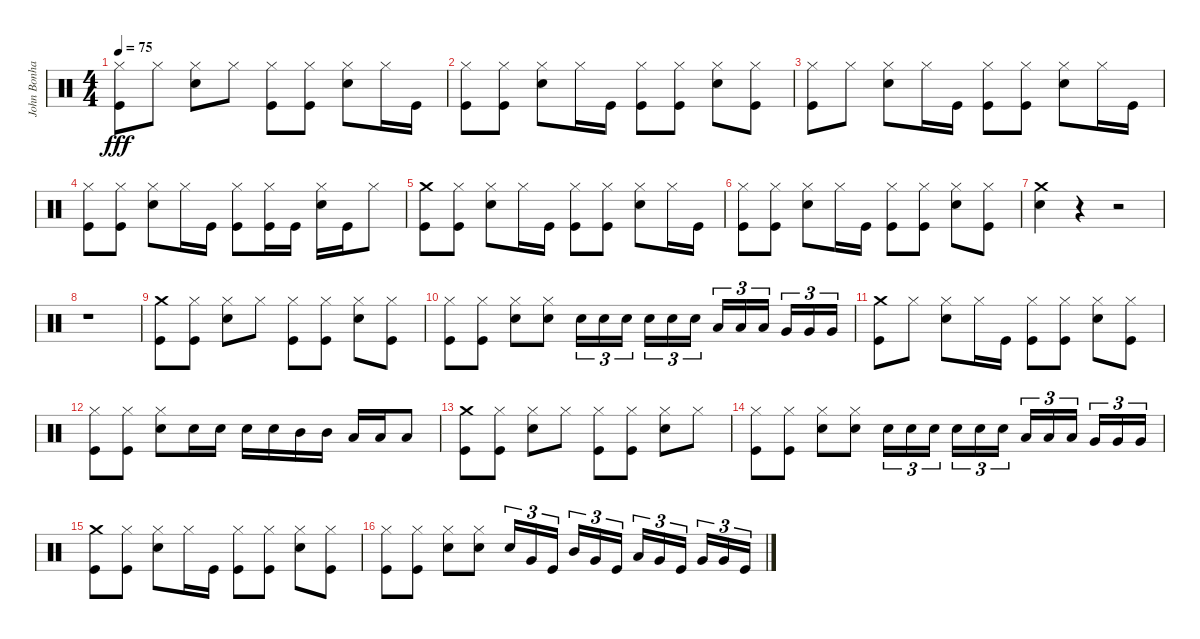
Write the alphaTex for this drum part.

\track ("John Bonham (Bateria)" "John Bonha") {instrument percussion}
\staff {score}
\articulation defaults
\ts (4 4)
\tempo 75
\clef neutral
\ks c
("Hi-Hat (closed)" "Kick (hit)").8{dy fff} "Hi-Hat (closed)".8 ("Hi-Hat (closed)" "Snare (hit) 2").8 "Hi-Hat (closed)".8 ("Hi-Hat (closed)" "Kick (hit)").8 ("Hi-Hat (closed)" "Kick (hit)").8 ("Hi-Hat (closed)" "Snare (hit) 2").8 "Hi-Hat (closed)".16 "Kick (hit)".16 |
("Hi-Hat (closed)" "Kick (hit)").8 ("Hi-Hat (closed)" "Kick (hit)").8 ("Hi-Hat (closed)" "Snare (hit) 2").8 "Hi-Hat (closed)".16 "Kick (hit)".16 ("Hi-Hat (closed)" "Kick (hit)").8 ("Hi-Hat (closed)" "Kick (hit)").8 ("Hi-Hat (closed)" "Snare (hit) 2").8 ("Hi-Hat (closed)" "Kick (hit)").8 |
("Hi-Hat (closed)" "Kick (hit)").8 "Hi-Hat (closed)".8 ("Hi-Hat (closed)" "Snare (hit) 2").8 "Hi-Hat (closed)".16 "Kick (hit)".16 ("Hi-Hat (closed)" "Kick (hit)").8 ("Hi-Hat (closed)" "Kick (hit)").8 ("Hi-Hat (closed)" "Snare (hit) 2").8 "Hi-Hat (closed)".16 "Kick (hit)".16 |
("Hi-Hat (closed)" "Kick (hit)").8 ("Hi-Hat (closed)" "Kick (hit)").8 ("Hi-Hat (closed)" "Snare (hit) 2").8 "Hi-Hat (closed)".16 "Kick (hit)".16 ("Hi-Hat (closed)" "Kick (hit)").8 ("Hi-Hat (closed)" "Kick (hit)").16 "Kick (hit)".16 ("Hi-Hat (closed)" "Snare (hit) 2").16 "Kick (hit)".16 "Hi-Hat (closed)".8 |
("Crash medium (hit)" "Kick (hit)").8 ("Hi-Hat (closed)" "Kick (hit)").8 ("Hi-Hat (closed)" "Snare (hit) 2").8 "Hi-Hat (closed)".16 "Kick (hit)".16 ("Hi-Hat (closed)" "Kick (hit)").8 ("Hi-Hat (closed)" "Kick (hit)").8 ("Hi-Hat (closed)" "Snare (hit) 2").8 "Hi-Hat (closed)".16 "Kick (hit)".16 |
("Hi-Hat (closed)" "Kick (hit)").8 ("Hi-Hat (closed)" "Kick (hit)").8 ("Hi-Hat (closed)" "Snare (hit) 2").8 "Hi-Hat (closed)".16 "Kick (hit)".16 ("Hi-Hat (closed)" "Kick (hit)").8 ("Hi-Hat (closed)" "Kick (hit)").8 ("Hi-Hat (closed)" "Snare (hit) 2").8 ("Hi-Hat (closed)" "Kick (hit)").8 |
("Crash medium (hit)" "Snare (hit) 2").4 r.4 r.2 |
r.1 |
("Crash medium (hit)" "Kick (hit)").8 ("Hi-Hat (closed)" "Kick (hit)").8 ("Hi-Hat (closed)" "Snare (hit) 2").8 "Hi-Hat (closed)".8 ("Hi-Hat (closed)" "Kick (hit)").8 ("Hi-Hat (closed)" "Kick (hit)").8 ("Hi-Hat (closed)" "Snare (hit) 2").8 ("Hi-Hat (closed)" "Kick (hit)").8 |
("Hi-Hat (closed)" "Kick (hit)").8 ("Hi-Hat (closed)" "Kick (hit)").8 ("Hi-Hat (closed)" "Snare (hit) 2").8 ("Hi-Hat (closed)" "Snare (hit) 2").8 "Snare (hit) 2".16{tu (3 2)} "Snare (hit) 2".16{tu (3 2)} "Snare (hit) 2".16{tu (3 2) beam splitsecondary} "Snare (hit) 2".16{tu (3 2)} "Snare (hit) 2".16{tu (3 2)} "Snare (hit) 2".16{tu (3 2)} "Low Tom (hit)".16{tu (3 2)} "Low Tom (hit)".16{tu (3 2)} "Low Tom (hit)".16{tu (3 2) beam splitsecondary} "Very Low Tom (hit)".16{tu (3 2)} "Very Low Tom (hit)".16{tu (3 2)} "Very Low Tom (hit)".16{tu (3 2)} |
("Crash medium (hit)" "Kick (hit)").8 "Hi-Hat (closed)".8 ("Hi-Hat (closed)" "Snare (hit) 2").8 "Hi-Hat (closed)".16 "Kick (hit)".16 ("Hi-Hat (closed)" "Kick (hit)").8 ("Hi-Hat (closed)" "Kick (hit)").8 ("Hi-Hat (closed)" "Snare (hit) 2").8 ("Hi-Hat (closed)" "Kick (hit)").8 |
("Hi-Hat (closed)" "Kick (hit)").8 ("Hi-Hat (closed)" "Kick (hit)").8 ("Hi-Hat (closed)" "Snare (hit) 2").8 "Snare (hit) 2".16 "Snare (hit) 2".16 "Snare (hit) 2".16 "Snare (hit) 2".16 "Mid Tom (hit)".16 "Mid Tom (hit)".16 "Low Tom (hit)".16 "Low Tom (hit)".16 "Low Tom (hit)".8 |
("Crash medium (hit)" "Kick (hit)").8 ("Hi-Hat (closed)" "Kick (hit)").8 ("Hi-Hat (closed)" "Snare (hit) 2").8 "Hi-Hat (closed)".8 ("Hi-Hat (closed)" "Kick (hit)").8 ("Hi-Hat (closed)" "Kick (hit)").8 ("Hi-Hat (closed)" "Snare (hit) 2").8 "Hi-Hat (closed)".8 |
("Hi-Hat (closed)" "Kick (hit)").8 ("Hi-Hat (closed)" "Kick (hit)").8 ("Hi-Hat (closed)" "Snare (hit) 2").8 ("Hi-Hat (closed)" "Snare (hit) 2").8 "Snare (hit) 2".16{tu (3 2)} "Snare (hit) 2".16{tu (3 2)} "Snare (hit) 2".16{tu (3 2) beam splitsecondary} "Snare (hit) 2".16{tu (3 2)} "Snare (hit) 2".16{tu (3 2)} "Snare (hit) 2".16{tu (3 2)} "Low Tom (hit)".16{tu (3 2)} "Low Tom (hit)".16{tu (3 2)} "Low Tom (hit)".16{tu (3 2) beam splitsecondary} "Very Low Tom (hit)".16{tu (3 2)} "Very Low Tom (hit)".16{tu (3 2)} "Very Low Tom (hit)".16{tu (3 2)} |
("Crash medium (hit)" "Kick (hit)").8 ("Hi-Hat (closed)" "Kick (hit)").8 ("Hi-Hat (closed)" "Snare (hit) 2").8 "Hi-Hat (closed)".16 "Kick (hit)".16 ("Hi-Hat (closed)" "Kick (hit)").8 ("Hi-Hat (closed)" "Kick (hit)").8 ("Hi-Hat (closed)" "Snare (hit) 2").8 ("Hi-Hat (closed)" "Kick (hit)").8 |
("Hi-Hat (closed)" "Kick (hit)").8 ("Hi-Hat (closed)" "Kick (hit)").8 ("Hi-Hat (closed)" "Snare (hit) 2").8 ("Hi-Hat (closed)" "Snare (hit) 2").8 "Snare (hit) 2".16{tu (3 2)} "Very Low Tom (hit)".16{tu (3 2)} "Kick (hit)".16{tu (3 2) beam splitsecondary} "Mid Tom (hit)".16{tu (3 2)} "Very Low Tom (hit)".16{tu (3 2)} "Kick (hit)".16{tu (3 2)} "Low Tom (hit)".16{tu (3 2)} "Very Low Tom (hit)".16{tu (3 2)} "Kick (hit)".16{tu (3 2) beam splitsecondary} "Very Low Tom (hit)".16{tu (3 2)} "Very Low Tom (hit)".16{tu (3 2)} "Kick (hit)".16{tu (3 2)}
